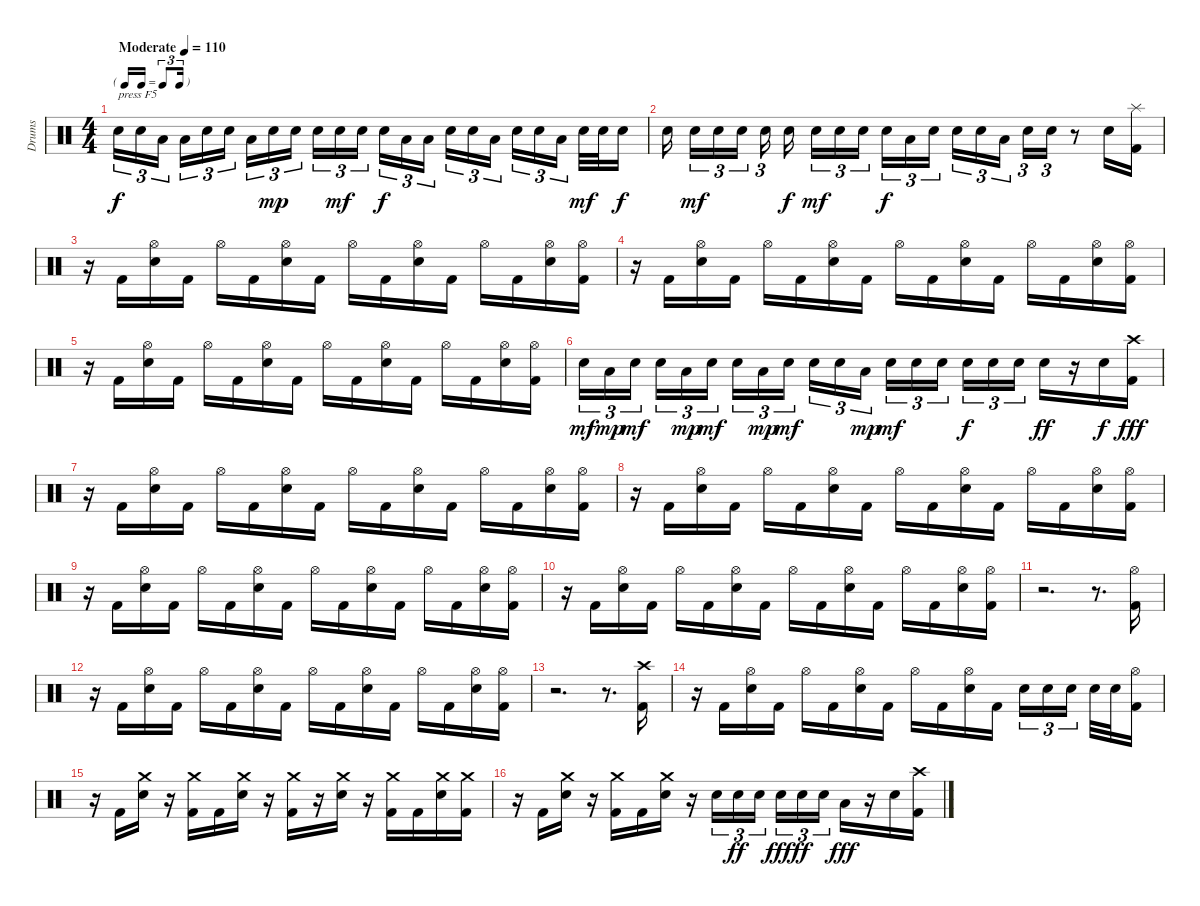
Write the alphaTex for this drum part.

\track ("Drums" "Drums") {instrument percussion}
\staff {score}
\articulation defaults
\ts (4 4)
\tf triplet16th
\tempo (110 "Moderate")
\clef neutral
\ks c "Snare (hit) 2".16{tu (3 2) txt "press F5" dy f} "Snare (hit) 2".16{tu (3 2)} "Low Tom (hit)".16{tu (3 2) beam splitsecondary} "Low Tom (hit)".16{tu (3 2)} "Snare (hit) 2".16{tu (3 2)} "Snare (hit) 2".16{tu (3 2)} "Low Tom (hit)".16{tu (3 2)} "Snare (hit) 2".16{tu (3 2) dy mp} "Snare (hit) 2".16{tu (3 2) beam splitsecondary} "Snare (hit) 2".16{tu (3 2)} "Snare (hit) 2".16{tu (3 2) dy mf} "Snare (hit) 2".16{tu (3 2)} "Snare (hit) 2".16{tu (3 2) dy f} "Low Tom (hit)".16{tu (3 2)} "Low Tom (hit)".16{tu (3 2) beam splitsecondary} "Snare (hit) 2".16{tu (3 2)} "Snare (hit) 2".16{tu (3 2)} "Low Tom (hit)".16{tu (3 2)} "Snare (hit) 2".16{tu (3 2)} "Snare (hit) 2".16{tu (3 2)} "Low Tom (hit)".16{tu (3 2) beam splitsecondary} "Snare (hit) 2".32{dy mf} "Snare (hit) 2".32 "Snare (hit) 2".16{dy f}
|
"Snare (hit) 2".16{beam splitsecondary} "Snare (hit) 2".16{tu (3 2) dy mf} "Snare (hit) 2".16{tu (3 2)} "Snare (hit) 2".16{tu (3 2) beam splitsecondary} "Snare (hit) 2".16{tu (3 2)} "Snare (hit) 2".16{dy f} "Snare (hit) 2".16{tu (3 2) dy mf} "Snare (hit) 2".16{tu (3 2)} "Snare (hit) 2".16{tu (3 2) beam splitsecondary} "Snare (hit) 2".16{tu (3 2) dy f} "Low Tom (hit)".16{tu (3 2)} "Snare (hit) 2".16{tu (3 2) beam splitsecondary} "Snare (hit) 2".16{tu (3 2)} "Snare (hit) 2".16{tu (3 2)} "Low Tom (hit)".16{tu (3 2) beam splitsecondary} "Snare (hit) 2".16{tu (3 2)} "Snare (hit) 2".16{tu (3 2)} r.8 "Snare (hit) 2".16 ("Splash (hit)" "Kick (hit) 2").16 |
r.16 "Kick (hit) 2".16 ("Hi-Hat (open)" "Snare (hit) 2").16 "Kick (hit) 2".16 "Hi-Hat (open)".16 "Kick (hit) 2".16 ("Hi-Hat (open)" "Snare (hit) 2").16 "Kick (hit) 2".16 "Hi-Hat (open)".16 "Kick (hit) 2".16 ("Hi-Hat (open)" "Snare (hit) 2").16 "Kick (hit) 2".16 "Hi-Hat (open)".16 "Kick (hit) 2".16 ("Hi-Hat (open)" "Snare (hit) 2").16 ("Hi-Hat (open)" "Kick (hit) 2").16 |
r.16 "Kick (hit) 2".16 ("Hi-Hat (open)" "Snare (hit) 2").16 "Kick (hit) 2".16 "Hi-Hat (open)".16 "Kick (hit) 2".16 ("Hi-Hat (open)" "Snare (hit) 2").16 "Kick (hit) 2".16 "Hi-Hat (open)".16 "Kick (hit) 2".16 ("Hi-Hat (open)" "Snare (hit) 2").16 "Kick (hit) 2".16 "Hi-Hat (open)".16 "Kick (hit) 2".16 ("Hi-Hat (open)" "Snare (hit) 2").16 ("Hi-Hat (open)" "Kick (hit) 2").16 |
r.16 "Kick (hit) 2".16 ("Hi-Hat (open)" "Snare (hit) 2").16 "Kick (hit) 2".16 "Hi-Hat (open)".16 "Kick (hit) 2".16 ("Hi-Hat (open)" "Snare (hit) 2").16 "Kick (hit) 2".16 "Hi-Hat (open)".16 "Kick (hit) 2".16 ("Hi-Hat (open)" "Snare (hit) 2").16 "Kick (hit) 2".16 "Hi-Hat (open)".16 "Kick (hit) 2".16 ("Hi-Hat (open)" "Snare (hit) 2").16 ("Hi-Hat (open)" "Kick (hit) 2").16 |
"Snare (hit) 2".16{tu (3 2) dy mf} "Low Tom (hit)".16{tu (3 2) dy mp} "Snare (hit) 2".16{tu (3 2) dy mf beam splitsecondary} "Snare (hit) 2".16{tu (3 2)} "Low Tom (hit)".16{tu (3 2) dy mp} "Snare (hit) 2".16{tu (3 2) dy mf} "Snare (hit) 2".16{tu (3 2)} "Low Tom (hit)".16{tu (3 2) dy mp} "Snare (hit) 2".16{tu (3 2) dy mf beam splitsecondary} "Snare (hit) 2".16{tu (3 2)} "Snare (hit) 2".16{tu (3 2)} "Low Tom (hit)".16{tu (3 2) dy mp} "Snare (hit) 2".16{tu (3 2) dy mf} "Snare (hit) 2".16{tu (3 2)} "Snare (hit) 2".16{tu (3 2) beam splitsecondary} "Snare (hit) 2".16{tu (3 2) dy f} "Snare (hit) 2".16{tu (3 2)} "Snare (hit) 2".16{tu (3 2)} "Snare (hit) 2".16{dy ff} r.16 "Snare (hit) 2".16{dy f} ("Crash high (hit)" "Kick (hit) 2").16{dy fff} |
r.16 "Kick (hit) 2".16 ("Hi-Hat (open)" "Snare (hit) 2").16 "Kick (hit) 2".16 "Hi-Hat (open)".16 "Kick (hit) 2".16 ("Hi-Hat (open)" "Snare (hit) 2").16 "Kick (hit) 2".16 "Hi-Hat (open)".16 "Kick (hit) 2".16 ("Hi-Hat (open)" "Snare (hit) 2").16 "Kick (hit) 2".16 "Hi-Hat (open)".16 "Kick (hit) 2".16 ("Hi-Hat (open)" "Snare (hit) 2").16 ("Hi-Hat (open)" "Kick (hit) 2").16 |
r.16 "Kick (hit) 2".16 ("Hi-Hat (open)" "Snare (hit) 2").16 "Kick (hit) 2".16 "Hi-Hat (open)".16 "Kick (hit) 2".16 ("Hi-Hat (open)" "Snare (hit) 2").16 "Kick (hit) 2".16 "Hi-Hat (open)".16 "Kick (hit) 2".16 ("Hi-Hat (open)" "Snare (hit) 2").16 "Kick (hit) 2".16 "Hi-Hat (open)".16 "Kick (hit) 2".16 ("Hi-Hat (open)" "Snare (hit) 2").16 ("Hi-Hat (open)" "Kick (hit) 2").16 |
r.16 "Kick (hit) 2".16 ("Hi-Hat (open)" "Snare (hit) 2").16 "Kick (hit) 2".16 "Hi-Hat (open)".16 "Kick (hit) 2".16 ("Hi-Hat (open)" "Snare (hit) 2").16 "Kick (hit) 2".16 "Hi-Hat (open)".16 "Kick (hit) 2".16 ("Hi-Hat (open)" "Snare (hit) 2").16 "Kick (hit) 2".16 "Hi-Hat (open)".16 "Kick (hit) 2".16 ("Hi-Hat (open)" "Snare (hit) 2").16 ("Hi-Hat (open)" "Kick (hit) 2").16 |
r.16 "Kick (hit) 2".16 ("Hi-Hat (open)" "Snare (hit) 2").16 "Kick (hit) 2".16 "Hi-Hat (open)".16 "Kick (hit) 2".16 ("Hi-Hat (open)" "Snare (hit) 2").16 "Kick (hit) 2".16 "Hi-Hat (open)".16 "Kick (hit) 2".16 ("Hi-Hat (open)" "Snare (hit) 2").16 "Kick (hit) 2".16 "Hi-Hat (open)".16 "Kick (hit) 2".16 ("Hi-Hat (open)" "Snare (hit) 2").16 ("Hi-Hat (open)" "Kick (hit) 2").16 |
r.2{d} r.8{d} ("Hi-Hat (open)" "Kick (hit) 2").16 |
r.16 "Kick (hit) 2".16 ("Hi-Hat (open)" "Snare (hit) 2").16 "Kick (hit) 2".16 "Hi-Hat (open)".16 "Kick (hit) 2".16 ("Hi-Hat (open)" "Snare (hit) 2").16 "Kick (hit) 2".16 "Hi-Hat (open)".16 "Kick (hit) 2".16 ("Hi-Hat (open)" "Snare (hit) 2").16 "Kick (hit) 2".16 "Hi-Hat (open)".16 "Kick (hit) 2".16 ("Hi-Hat (open)" "Snare (hit) 2").16 ("Hi-Hat (open)" "Kick (hit) 2").16 |
r.2{d} r.8{d} ("Crash high (hit)" "Kick (hit) 2").16 |
r.16 "Kick (hit) 2".16 ("Hi-Hat (open)" "Snare (hit) 2").16 "Kick (hit) 2".16 "Hi-Hat (open)".16 "Kick (hit) 2".16 ("Hi-Hat (open)" "Snare (hit) 2").16 "Kick (hit) 2".16 "Hi-Hat (open)".16 "Kick (hit) 2".16 ("Hi-Hat (open)" "Snare (hit) 2").16 "Kick (hit) 2".16 "Snare (hit) 2".16{tu (3 2)} "Snare (hit) 2".16{tu (3 2)} "Snare (hit) 2".16{tu (3 2) beam splitsecondary} "Snare (hit) 2".32 "Snare (hit) 2".32 ("Hi-Hat (open)" "Kick (hit) 2").16 |
r.16 "Kick (hit) 2".16 ("Crash medium (hit)" "Snare (hit) 2").16 r.16 ("Crash medium (hit)" "Kick (hit) 2").16 "Kick (hit) 2".16 ("Crash medium (hit)" "Snare (hit) 2").16 r.16 ("Crash medium (hit)" "Kick (hit) 2").16 r.16 ("Crash medium (hit)" "Snare (hit) 2").16 r.16 ("Crash medium (hit)" "Kick (hit) 2").16 "Kick (hit) 2".16 ("Crash medium (hit)" "Snare (hit) 2").16 ("Crash medium (hit)" "Kick (hit) 2").16 |
r.16 "Kick (hit) 2".16 ("Crash medium (hit)" "Snare (hit) 2").16 r.16 ("Crash medium (hit)" "Kick (hit) 2").16 "Kick (hit) 2".16 ("Crash medium (hit)" "Snare (hit) 2").16 r.16 "Snare (hit) 2".16{tu (3 2)} "Snare (hit) 2".16{tu (3 2) dy ff} "Snare (hit) 2".16{tu (3 2) beam splitsecondary} "Snare (hit) 2".16{tu (3 2) dy fff} "Snare (hit) 2".16{tu (3 2) dy ff} "Snare (hit) 2".16{tu (3 2)} "Low Tom (hit)".16{dy fff} r.16 "Snare (hit) 2".16 ("Crash high (hit)" "Kick (hit) 2").16
